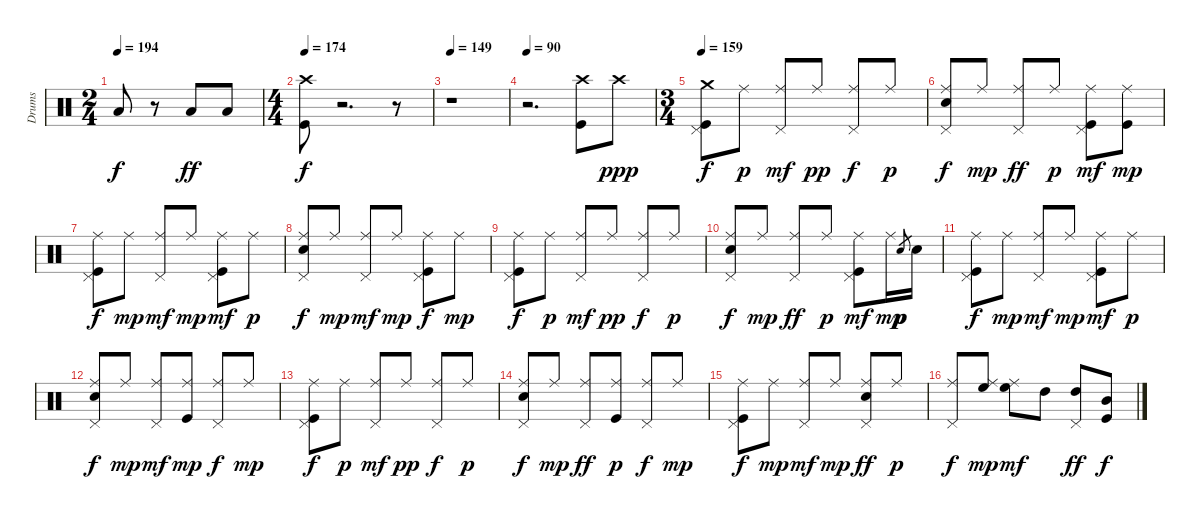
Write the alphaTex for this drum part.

\track ("Drums" "Drums") {instrument percussion}
\staff {score}
\articulation defaults
\ts (2 4)
\tempo 194
\clef neutral
\ks c "Low Tom (hit)".8{dy f}
r.8 "Low Tom (hit)".8{dy ff} "Low Tom (hit)".8 |
\ts (4 4)
\tempo 174
("Kick (hit)" "Crash high (hit)").8{dy f} r.2{d} r.8 |
\tempo 149
r.1 |
\tempo 90
r.2{d} ("Kick (hit)" "Crash high (hit)").8 "Crash high (hit)".8{dy ppp} |
\ts (3 4)
\tempo 159
("Kick (hit)" "Pedal Hi-Hat (hit)" "Crash medium (hit)").8{dy f} "Ride (middle)".8{dy p} ("Pedal Hi-Hat (hit)" "Ride (middle)").8{dy mf} "Ride (middle)".8{dy pp} ("Pedal Hi-Hat (hit)" "Ride (middle)").8{dy f} "Ride (middle)".8{dy p} |
("Electric Snare (hit)" "Pedal Hi-Hat (hit)" "Ride (middle)").8{dy f} "Ride (middle)".8{dy mp} ("Pedal Hi-Hat (hit)" "Ride (middle)").8{dy ff} "Ride (middle)".8{dy p} ("Kick (hit)" "Pedal Hi-Hat (hit)" "Ride (middle)").8{dy mf} ("Kick (hit)" "Ride (middle)").8{dy mp} |
("Kick (hit)" "Pedal Hi-Hat (hit)" "Ride (middle)").8{dy f} "Ride (middle)".8{dy mp} ("Pedal Hi-Hat (hit)" "Ride (middle)").8{dy mf} "Ride (middle)".8{dy mp} ("Kick (hit)" "Pedal Hi-Hat (hit)" "Ride (middle)").8{dy mf} "Ride (middle)".8{dy p} |
("Electric Snare (hit)" "Pedal Hi-Hat (hit)" "Ride (middle)").8{dy f} "Ride (middle)".8{dy mp} ("Pedal Hi-Hat (hit)" "Ride (middle)").8{dy mf} "Ride (middle)".8{dy mp} ("Kick (hit)" "Pedal Hi-Hat (hit)" "Ride (middle)").8{dy f} "Ride (middle)".8{dy mp} |
("Kick (hit)" "Pedal Hi-Hat (hit)" "Ride (middle)").8{dy f} "Ride (middle)".8{dy p} ("Pedal Hi-Hat (hit)" "Ride (middle)").8{dy mf} "Ride (middle)".8{dy pp} ("Pedal Hi-Hat (hit)" "Ride (middle)").8{dy f} "Ride (middle)".8{dy p} |
("Electric Snare (hit)" "Pedal Hi-Hat (hit)" "Ride (middle)").8{dy f} "Ride (middle)".8{dy mp} ("Pedal Hi-Hat (hit)" "Ride (middle)").8{dy ff} "Ride (middle)".8{dy p} ("Kick (hit)" "Pedal Hi-Hat (hit)" "Ride (middle)").8{dy mf} "Ride (middle)".16{dy mp} "Snare (hit) 2".8{gr dy p} "Snare (hit) 2".16 |
("Kick (hit)" "Pedal Hi-Hat (hit)" "Ride (middle)").8{dy f} "Ride (middle)".8{dy mp} ("Pedal Hi-Hat (hit)" "Ride (middle)").8{dy mf} "Ride (middle)".8{dy mp} ("Kick (hit)" "Pedal Hi-Hat (hit)" "Ride (middle)").8{dy mf} "Ride (middle)".8{dy p} |
("Electric Snare (hit)" "Pedal Hi-Hat (hit)" "Ride (middle)").8{dy f} "Ride (middle)".8{dy mp} ("Pedal Hi-Hat (hit)" "Ride (middle)").8{dy mf} ("Kick (hit)" "Ride (middle)").8{dy mp} ("Pedal Hi-Hat (hit)" "Ride (middle)").8{dy f} "Ride (middle)".8{dy mp} |
("Kick (hit)" "Pedal Hi-Hat (hit)" "Ride (middle)").8{dy f} "Ride (middle)".8{dy p} ("Pedal Hi-Hat (hit)" "Ride (middle)").8{dy mf} "Ride (middle)".8{dy pp} ("Pedal Hi-Hat (hit)" "Ride (middle)").8{dy f} "Ride (middle)".8{dy p} |
("Electric Snare (hit)" "Pedal Hi-Hat (hit)" "Ride (middle)").8{dy f} "Ride (middle)".8{dy mp} ("Pedal Hi-Hat (hit)" "Ride (middle)").8{dy ff} ("Kick (hit)" "Ride (middle)").8{dy p} ("Pedal Hi-Hat (hit)" "Ride (middle)").8{dy f} "Ride (middle)".8{dy mp} |
("Kick (hit)" "Pedal Hi-Hat (hit)" "Ride (middle)").8{dy f} "Ride (middle)".8{dy mp} ("Pedal Hi-Hat (hit)" "Ride (middle)").8{dy mf} "Ride (middle)".8{dy mp} ("Electric Snare (hit)" "Pedal Hi-Hat (hit)" "Ride (middle)").8{dy ff} "Ride (middle)".8{dy p} |
("Pedal Hi-Hat (hit)" "Ride (middle)").8{dy f} ("High Floor Tom (hit)" "Ride (middle)").8{dy mp} ("High Floor Tom (hit)" "Ride (middle)").8{dy mf} "High Tom (hit)".8 ("High Tom (hit)" "Pedal Hi-Hat (hit)").8{dy ff} ("Kick (hit)" "Mid Tom (hit)").8{dy f}
